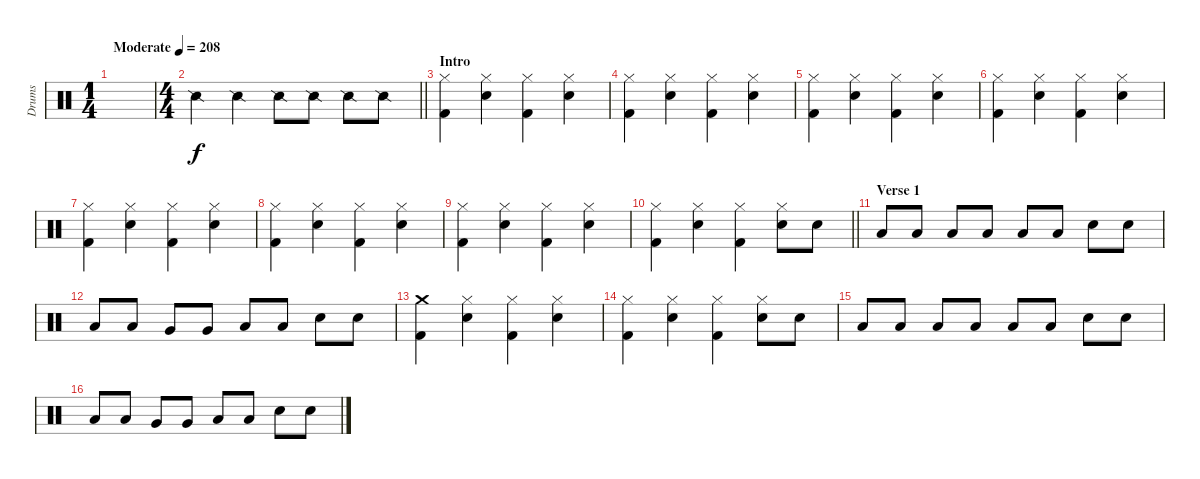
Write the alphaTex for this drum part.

\track ("Drums" "Drums") {instrument percussion}
\staff {score}
\articulation defaults
\ts (1 4)
\tempo (208 "Moderate")
\clef neutral
\ks c
|
\ts (4 4)
\barLineRight lightlight "Snare (side stick) 2".4 "Snare (side stick) 2".4 "Snare (side stick) 2".8 "Snare (side stick) 2".8 "Snare (side stick) 2".8 "Snare (side stick) 2".8
|
\section ("" "Intro")
("Hi-Hat (closed)" "Kick (hit) 2").4 ("Hi-Hat (closed)" "Snare (hit) 2").4 ("Hi-Hat (closed)" "Kick (hit) 2").4 ("Hi-Hat (closed)" "Snare (hit) 2").4 |
("Hi-Hat (closed)" "Kick (hit) 2").4 ("Hi-Hat (closed)" "Snare (hit) 2").4 ("Hi-Hat (closed)" "Kick (hit) 2").4 ("Hi-Hat (closed)" "Snare (hit) 2").4 |
("Hi-Hat (closed)" "Kick (hit) 2").4 ("Hi-Hat (closed)" "Snare (hit) 2").4 ("Hi-Hat (closed)" "Kick (hit) 2").4 ("Hi-Hat (closed)" "Snare (hit) 2").4 |
("Hi-Hat (closed)" "Kick (hit) 2").4 ("Hi-Hat (closed)" "Snare (hit) 2").4 ("Hi-Hat (closed)" "Kick (hit) 2").4 ("Hi-Hat (closed)" "Snare (hit) 2").4 |
("Hi-Hat (closed)" "Kick (hit) 2").4 ("Hi-Hat (closed)" "Snare (hit) 2").4 ("Hi-Hat (closed)" "Kick (hit) 2").4 ("Hi-Hat (closed)" "Snare (hit) 2").4 |
("Hi-Hat (closed)" "Kick (hit) 2").4 ("Hi-Hat (closed)" "Snare (hit) 2").4 ("Hi-Hat (closed)" "Kick (hit) 2").4 ("Hi-Hat (closed)" "Snare (hit) 2").4 |
("Hi-Hat (closed)" "Kick (hit) 2").4 ("Hi-Hat (closed)" "Snare (hit) 2").4 ("Hi-Hat (closed)" "Kick (hit) 2").4 ("Hi-Hat (closed)" "Snare (hit) 2").4 |
\barLineRight lightlight
("Hi-Hat (closed)" "Kick (hit) 2").4 ("Hi-Hat (closed)" "Snare (hit) 2").4 ("Hi-Hat (closed)" "Kick (hit) 2").4 ("Hi-Hat (closed)" "Snare (hit) 2").8 "Snare (hit) 2".8 |
\section ("" "Verse 1")
"Low Floor Tom (hit)".8 "Low Floor Tom (hit)".8 "Low Tom (hit)".8 "Low Tom (hit)".8 "Low Floor Tom (hit)".8 "Low Floor Tom (hit)".8 "Snare (hit) 2".8 "Snare (hit) 2".8 |
"Low Floor Tom (hit)".8 "Low Floor Tom (hit)".8 "Very Low Tom (hit)".8 "Very Low Tom (hit)".8 "Low Floor Tom (hit)".8 "Low Floor Tom (hit)".8 "Snare (hit) 2".8 "Snare (hit) 2".8 |
("Crash medium (hit)" "Kick (hit) 2").4 ("Hi-Hat (closed)" "Snare (hit) 2").4 ("Hi-Hat (closed)" "Kick (hit) 2").4 ("Hi-Hat (closed)" "Snare (hit) 2").4 |
("Hi-Hat (closed)" "Kick (hit) 2").4 ("Hi-Hat (closed)" "Snare (hit) 2").4 ("Hi-Hat (closed)" "Kick (hit) 2").4 ("Hi-Hat (closed)" "Snare (hit) 2").8 "Snare (hit) 2".8 |
"Low Floor Tom (hit)".8 "Low Floor Tom (hit)".8 "Low Tom (hit)".8 "Low Tom (hit)".8 "Low Floor Tom (hit)".8 "Low Floor Tom (hit)".8 "Snare (hit) 2".8 "Snare (hit) 2".8 |
"Low Floor Tom (hit)".8 "Low Floor Tom (hit)".8 "Very Low Tom (hit)".8 "Very Low Tom (hit)".8 "Low Floor Tom (hit)".8 "Low Floor Tom (hit)".8 "Snare (hit) 2".8 "Snare (hit) 2".8
